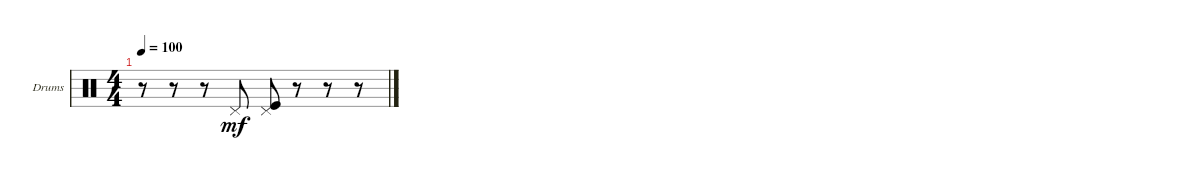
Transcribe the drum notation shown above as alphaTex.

\defaultSystemsLayout 4
\bracketExtendMode groupsimilarinstruments
\firstSystemTrackNameOrientation horizontal
\otherSystemsTrackNameOrientation horizontal
\track ("Drumkit" "Drums") {instrument percussion}
\staff {score}
\articulation defaults
\ts (4 4)
\tempo 100
\clef neutral
\ks c
r.8{dy mf} r.8 r.8 "Pedal Hi-Hat (hit)".8 ("Pedal Hi-Hat (hit)" "Kick (hit)").8 r.8 r.8 r.8
